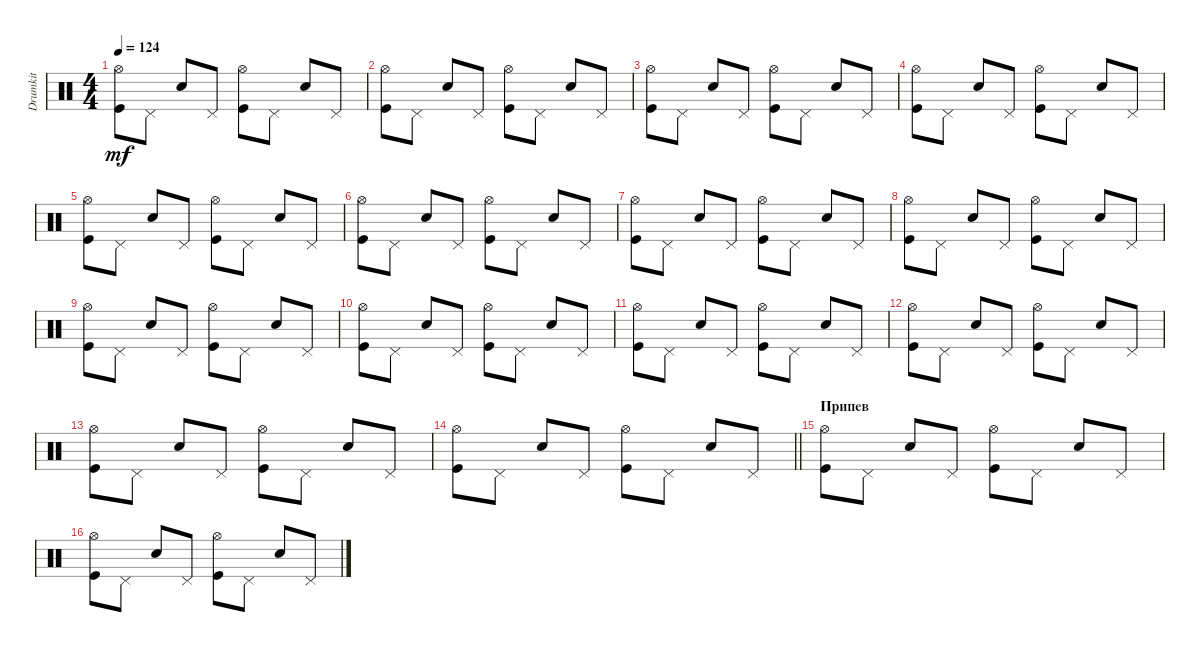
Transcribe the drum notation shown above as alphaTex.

\track ("Drumkit" "Drumkit") {instrument percussion}
\staff {score}
\articulation defaults
\ts (4 4)
\tempo 124
\clef neutral
\ks c
("Kick (hit)" "Hi-Hat (open)").8{dy mf} "Pedal Hi-Hat (hit)".8 "Snare (hit) 2".8 "Pedal Hi-Hat (hit)".8 ("Kick (hit)" "Hi-Hat (open)").8 "Pedal Hi-Hat (hit)".8 "Snare (hit) 2".8 "Pedal Hi-Hat (hit)".8 |
("Kick (hit)" "Hi-Hat (open)").8 "Pedal Hi-Hat (hit)".8 "Snare (hit) 2".8 "Pedal Hi-Hat (hit)".8 ("Kick (hit)" "Hi-Hat (open)").8 "Pedal Hi-Hat (hit)".8 "Snare (hit) 2".8 "Pedal Hi-Hat (hit)".8 |
("Kick (hit)" "Hi-Hat (open)").8 "Pedal Hi-Hat (hit)".8 "Snare (hit) 2".8 "Pedal Hi-Hat (hit)".8 ("Kick (hit)" "Hi-Hat (open)").8 "Pedal Hi-Hat (hit)".8 "Snare (hit) 2".8 "Pedal Hi-Hat (hit)".8 |
("Kick (hit)" "Hi-Hat (open)").8 "Pedal Hi-Hat (hit)".8 "Snare (hit) 2".8 "Pedal Hi-Hat (hit)".8 ("Kick (hit)" "Hi-Hat (open)").8 "Pedal Hi-Hat (hit)".8 "Snare (hit) 2".8 "Pedal Hi-Hat (hit)".8 |
("Kick (hit)" "Hi-Hat (open)").8 "Pedal Hi-Hat (hit)".8 "Snare (hit) 2".8 "Pedal Hi-Hat (hit)".8 ("Kick (hit)" "Hi-Hat (open)").8 "Pedal Hi-Hat (hit)".8 "Snare (hit) 2".8 "Pedal Hi-Hat (hit)".8 |
("Kick (hit)" "Hi-Hat (open)").8 "Pedal Hi-Hat (hit)".8 "Snare (hit) 2".8 "Pedal Hi-Hat (hit)".8 ("Kick (hit)" "Hi-Hat (open)").8 "Pedal Hi-Hat (hit)".8 "Snare (hit) 2".8 "Pedal Hi-Hat (hit)".8 |
("Kick (hit)" "Hi-Hat (open)").8 "Pedal Hi-Hat (hit)".8 "Snare (hit) 2".8 "Pedal Hi-Hat (hit)".8 ("Kick (hit)" "Hi-Hat (open)").8 "Pedal Hi-Hat (hit)".8 "Snare (hit) 2".8 "Pedal Hi-Hat (hit)".8 |
("Kick (hit)" "Hi-Hat (open)").8 "Pedal Hi-Hat (hit)".8 "Snare (hit) 2".8 "Pedal Hi-Hat (hit)".8 ("Kick (hit)" "Hi-Hat (open)").8 "Pedal Hi-Hat (hit)".8 "Snare (hit) 2".8 "Pedal Hi-Hat (hit)".8 |
("Kick (hit)" "Hi-Hat (open)").8 "Pedal Hi-Hat (hit)".8 "Snare (hit) 2".8 "Pedal Hi-Hat (hit)".8 ("Kick (hit)" "Hi-Hat (open)").8 "Pedal Hi-Hat (hit)".8 "Snare (hit) 2".8 "Pedal Hi-Hat (hit)".8 |
("Kick (hit)" "Hi-Hat (open)").8 "Pedal Hi-Hat (hit)".8 "Snare (hit) 2".8 "Pedal Hi-Hat (hit)".8 ("Kick (hit)" "Hi-Hat (open)").8 "Pedal Hi-Hat (hit)".8 "Snare (hit) 2".8 "Pedal Hi-Hat (hit)".8 |
("Kick (hit)" "Hi-Hat (open)").8 "Pedal Hi-Hat (hit)".8 "Snare (hit) 2".8 "Pedal Hi-Hat (hit)".8 ("Kick (hit)" "Hi-Hat (open)").8 "Pedal Hi-Hat (hit)".8 "Snare (hit) 2".8 "Pedal Hi-Hat (hit)".8 |
("Kick (hit)" "Hi-Hat (open)").8 "Pedal Hi-Hat (hit)".8 "Snare (hit) 2".8 "Pedal Hi-Hat (hit)".8 ("Kick (hit)" "Hi-Hat (open)").8 "Pedal Hi-Hat (hit)".8 "Snare (hit) 2".8 "Pedal Hi-Hat (hit)".8 |
("Kick (hit)" "Hi-Hat (open)").8 "Pedal Hi-Hat (hit)".8 "Snare (hit) 2".8 "Pedal Hi-Hat (hit)".8 ("Kick (hit)" "Hi-Hat (open)").8 "Pedal Hi-Hat (hit)".8 "Snare (hit) 2".8 "Pedal Hi-Hat (hit)".8 |
\barLineRight lightlight
("Kick (hit)" "Hi-Hat (open)").8 "Pedal Hi-Hat (hit)".8 "Snare (hit) 2".8 "Pedal Hi-Hat (hit)".8 ("Kick (hit)" "Hi-Hat (open)").8 "Pedal Hi-Hat (hit)".8 "Snare (hit) 2".8 "Pedal Hi-Hat (hit)".8 |
\section ("" "Припев")
("Kick (hit)" "Hi-Hat (open)").8 "Pedal Hi-Hat (hit)".8 "Snare (hit) 2".8 "Pedal Hi-Hat (hit)".8 ("Kick (hit)" "Hi-Hat (open)").8 "Pedal Hi-Hat (hit)".8 "Snare (hit) 2".8 "Pedal Hi-Hat (hit)".8 |
("Kick (hit)" "Hi-Hat (open)").8 "Pedal Hi-Hat (hit)".8 "Snare (hit) 2".8 "Pedal Hi-Hat (hit)".8 ("Kick (hit)" "Hi-Hat (open)").8 "Pedal Hi-Hat (hit)".8 "Snare (hit) 2".8 "Pedal Hi-Hat (hit)".8
